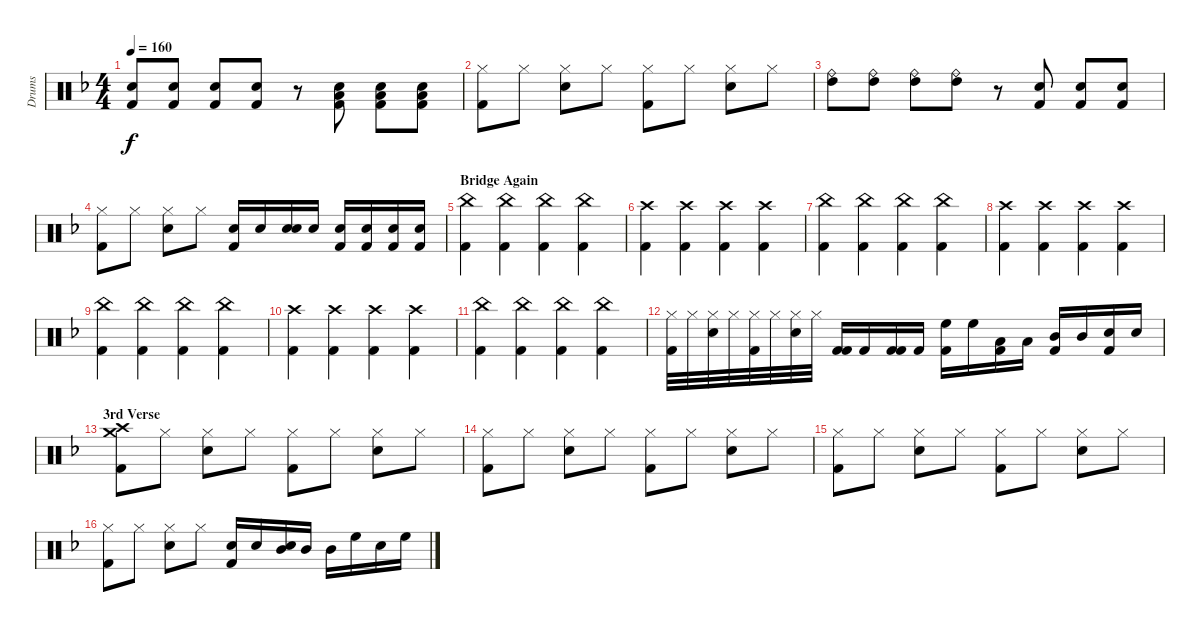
\track ("Drums" "Drums") {instrument percussion}
\staff {score}
\articulation defaults
\ts (4 4)
\tempo 160
\clef neutral
\ks dminor
("Snare (hit) 2" "Kick (hit) 2").8{dy f} ("Snare (hit) 2" "Kick (hit) 2").8 ("Snare (hit) 2" "Kick (hit) 2").8 ("Snare (hit) 2" "Kick (hit) 2").8 r.8 ("Low Tom (hit)" "Kick (hit) 2" "Snare (hit) 2").8 ("Low Tom (hit)" "Kick (hit) 2" "Snare (hit) 2").8 ("Low Tom (hit)" "Kick (hit) 2" "Snare (hit) 2").8 |
("Hi-Hat (closed)" "Kick (hit) 2").8 "Hi-Hat (closed)".8 ("Hi-Hat (closed)" "Electric Snare (hit)").8 "Hi-Hat (closed)".8 ("Hi-Hat (closed)" "Kick (hit) 2").8 "Hi-Hat (closed)".8 ("Hi-Hat (closed)" "Electric Snare (hit)").8 "Hi-Hat (closed)".8 |
("Ride (bell)" "High Tom (hit)").8 ("Ride (bell)" "High Tom (hit)").8 ("Ride (bell)" "High Tom (hit)").8 ("Ride (bell)" "High Tom (hit)").8 r.8 ("Kick (hit) 2" "Snare (hit) 2").8 ("Kick (hit) 2" "Snare (hit) 2").8 ("Kick (hit) 2" "Snare (hit) 2").8 |
("Hi-Hat (closed)" "Kick (hit) 2").8 "Hi-Hat (closed)".8 ("Hi-Hat (closed)" "Electric Snare (hit)").8 "Hi-Hat (closed)".8 ("Snare (hit) 2" "Kick (hit) 2").16 "Snare (hit) 2".16 ("Snare (hit) 2" "Electric Snare (hit)").16 "Snare (hit) 2".16 ("Snare (hit) 2" "Kick (hit) 2").16 ("Snare (hit) 2" "Kick (hit) 2").16 ("Snare (hit) 2" "Kick (hit) 2").16 ("Snare (hit) 2" "Kick (hit) 2").16 |
\section ("" "Bridge Again")
("China (hit)" "Kick (hit) 2").4 ("China (hit)" "Kick (hit) 2").4 ("China (hit)" "Kick (hit) 2").4 ("China (hit)" "Kick (hit) 2").4 |
("Crash high (hit)" "Kick (hit) 2").4 ("Crash high (hit)" "Kick (hit) 2").4 ("Crash high (hit)" "Kick (hit) 2").4 ("Crash high (hit)" "Kick (hit) 2").4 |
("China (hit)" "Kick (hit) 2").4 ("China (hit)" "Kick (hit) 2").4 ("China (hit)" "Kick (hit) 2").4 ("China (hit)" "Kick (hit) 2").4 |
("Crash high (hit)" "Kick (hit) 2").4 ("Crash high (hit)" "Kick (hit) 2").4 ("Crash high (hit)" "Kick (hit) 2").4 ("Crash high (hit)" "Kick (hit) 2").4 |
("China (hit)" "Kick (hit) 2").4 ("China (hit)" "Kick (hit) 2").4 ("China (hit)" "Kick (hit) 2").4 ("China (hit)" "Kick (hit) 2").4 |
("Crash high (hit)" "Kick (hit) 2").4 ("Crash high (hit)" "Kick (hit) 2").4 ("Crash high (hit)" "Kick (hit) 2").4 ("Crash high (hit)" "Kick (hit) 2").4 |
("China (hit)" "Kick (hit) 2").4 ("China (hit)" "Kick (hit) 2").4 ("China (hit)" "Kick (hit) 2").4 ("China (hit)" "Kick (hit) 2").4 |
("Hi-Hat (closed)" "Kick (hit) 2").32 "Hi-Hat (closed)".32 ("Hi-Hat (closed)" "Electric Snare (hit)").32 "Hi-Hat (closed)".32 ("Hi-Hat (closed)" "Kick (hit) 2").32 "Hi-Hat (closed)".32 ("Hi-Hat (closed)" "Electric Snare (hit)").32 "Hi-Hat (closed)".32 ("Kick (hit) 2" "Kick (hit) 2").16 "Kick (hit) 2".16 ("Kick (hit) 2" "Kick (hit) 2").16 "Kick (hit) 2".16 ("High Floor Tom (hit)" "Kick (hit) 2").16 "High Floor Tom (hit)".16 ("Low Floor Tom (hit)" "Kick (hit) 2").16 "Low Floor Tom (hit)".16 ("Mid Tom (hit)" "Kick (hit) 2").16 "Mid Tom (hit)".16 ("Snare (hit) 2" "Kick (hit) 2").16 "Snare (hit) 2".16 |
\section ("" "3rd Verse")
("Crash high (hit)" "Crash medium (hit)" "Kick (hit) 2").8 "Hi-Hat (closed)".8 ("Hi-Hat (closed)" "Electric Snare (hit)").8 "Hi-Hat (closed)".8 ("Hi-Hat (closed)" "Kick (hit) 2").8 "Hi-Hat (closed)".8 ("Hi-Hat (closed)" "Electric Snare (hit)").8 "Hi-Hat (closed)".8 |
("Hi-Hat (closed)" "Kick (hit) 2").8 "Hi-Hat (closed)".8 ("Hi-Hat (closed)" "Electric Snare (hit)").8 "Hi-Hat (closed)".8 ("Hi-Hat (closed)" "Kick (hit) 2").8 "Hi-Hat (closed)".8 ("Hi-Hat (closed)" "Electric Snare (hit)").8 "Hi-Hat (closed)".8 |
("Hi-Hat (closed)" "Kick (hit) 2").8 "Hi-Hat (closed)".8 ("Hi-Hat (closed)" "Electric Snare (hit)").8 "Hi-Hat (closed)".8 ("Hi-Hat (closed)" "Kick (hit) 2").8 "Hi-Hat (closed)".8 ("Hi-Hat (closed)" "Electric Snare (hit)").8 "Hi-Hat (closed)".8 |
("Hi-Hat (closed)" "Kick (hit) 2").8 "Hi-Hat (closed)".8 ("Hi-Hat (closed)" "Electric Snare (hit)").8 "Hi-Hat (closed)".8 ("Snare (hit) 2" "Kick (hit) 2").16 "Snare (hit) 2".16 ("Mid Tom (hit)" "Electric Snare (hit)").16 "Mid Tom (hit)".16 "Mid Tom (hit)".16 "High Floor Tom (hit)".16 "Snare (hit) 2".16 "High Floor Tom (hit)".16
